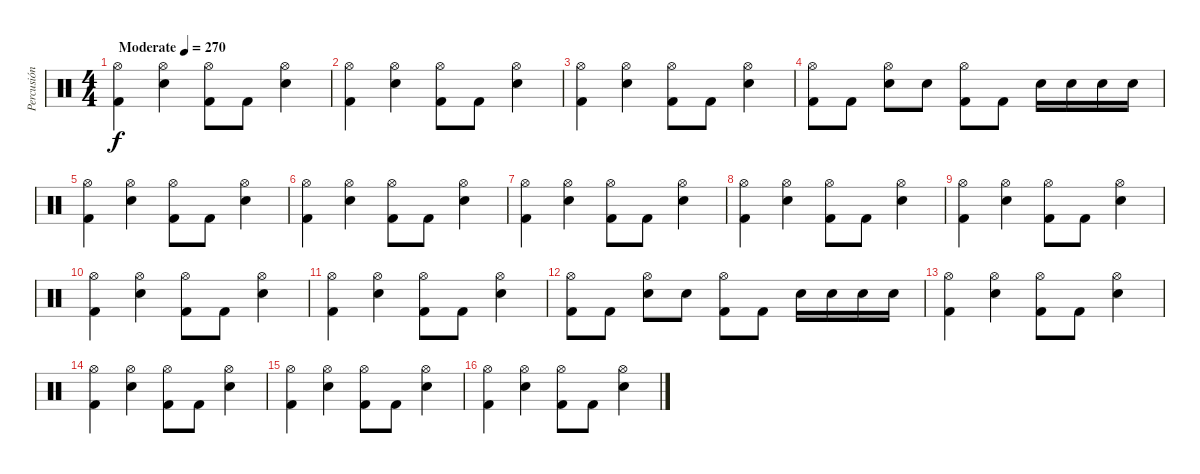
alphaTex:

\track ("Percusión" "Percusión") {instrument percussion}
\staff {score}
\articulation defaults
\ts (4 4)
\tempo (270 "Moderate")
\clef neutral
\ks c
("Hi-Hat (open)" "Kick (hit) 2").4{dy f} ("Hi-Hat (open)" "Electric Snare (hit)").4 ("Hi-Hat (open)" "Kick (hit) 2").8 "Kick (hit) 2".8 ("Hi-Hat (open)" "Electric Snare (hit)").4 |
("Hi-Hat (open)" "Kick (hit) 2").4 ("Hi-Hat (open)" "Electric Snare (hit)").4 ("Hi-Hat (open)" "Kick (hit) 2").8 "Kick (hit) 2".8 ("Hi-Hat (open)" "Electric Snare (hit)").4 |
("Hi-Hat (open)" "Kick (hit) 2").4 ("Hi-Hat (open)" "Electric Snare (hit)").4 ("Hi-Hat (open)" "Kick (hit) 2").8 "Kick (hit) 2".8 ("Hi-Hat (open)" "Electric Snare (hit)").4 |
("Hi-Hat (open)" "Kick (hit) 2").8 "Kick (hit) 2".8 ("Hi-Hat (open)" "Electric Snare (hit)").8 "Electric Snare (hit)".8 ("Hi-Hat (open)" "Kick (hit) 2").8 "Kick (hit) 2".8 "Electric Snare (hit)".16 "Electric Snare (hit)".16 "Electric Snare (hit)".16 "Electric Snare (hit)".16 |
("Hi-Hat (open)" "Kick (hit) 2").4 ("Hi-Hat (open)" "Electric Snare (hit)").4 ("Hi-Hat (open)" "Kick (hit) 2").8 "Kick (hit) 2".8 ("Hi-Hat (open)" "Electric Snare (hit)").4 |
("Hi-Hat (open)" "Kick (hit) 2").4 ("Hi-Hat (open)" "Electric Snare (hit)").4 ("Hi-Hat (open)" "Kick (hit) 2").8 "Kick (hit) 2".8 ("Hi-Hat (open)" "Electric Snare (hit)").4 |
("Hi-Hat (open)" "Kick (hit) 2").4 ("Hi-Hat (open)" "Electric Snare (hit)").4 ("Hi-Hat (open)" "Kick (hit) 2").8 "Kick (hit) 2".8 ("Hi-Hat (open)" "Electric Snare (hit)").4 |
("Hi-Hat (open)" "Kick (hit) 2").4 ("Hi-Hat (open)" "Electric Snare (hit)").4 ("Hi-Hat (open)" "Kick (hit) 2").8 "Kick (hit) 2".8 ("Hi-Hat (open)" "Electric Snare (hit)").4 |
("Hi-Hat (open)" "Kick (hit) 2").4 ("Hi-Hat (open)" "Electric Snare (hit)").4 ("Hi-Hat (open)" "Kick (hit) 2").8 "Kick (hit) 2".8 ("Hi-Hat (open)" "Electric Snare (hit)").4 |
("Hi-Hat (open)" "Kick (hit) 2").4 ("Hi-Hat (open)" "Electric Snare (hit)").4 ("Hi-Hat (open)" "Kick (hit) 2").8 "Kick (hit) 2".8 ("Hi-Hat (open)" "Electric Snare (hit)").4 |
("Hi-Hat (open)" "Kick (hit) 2").4 ("Hi-Hat (open)" "Electric Snare (hit)").4 ("Hi-Hat (open)" "Kick (hit) 2").8 "Kick (hit) 2".8 ("Hi-Hat (open)" "Electric Snare (hit)").4 |
("Hi-Hat (open)" "Kick (hit) 2").8 "Kick (hit) 2".8 ("Hi-Hat (open)" "Electric Snare (hit)").8 "Electric Snare (hit)".8 ("Hi-Hat (open)" "Kick (hit) 2").8 "Kick (hit) 2".8 "Electric Snare (hit)".16 "Electric Snare (hit)".16 "Electric Snare (hit)".16 "Electric Snare (hit)".16 |
("Hi-Hat (open)" "Kick (hit) 2").4 ("Hi-Hat (open)" "Electric Snare (hit)").4 ("Hi-Hat (open)" "Kick (hit) 2").8 "Kick (hit) 2".8 ("Hi-Hat (open)" "Electric Snare (hit)").4 |
("Hi-Hat (open)" "Kick (hit) 2").4 ("Hi-Hat (open)" "Electric Snare (hit)").4 ("Hi-Hat (open)" "Kick (hit) 2").8 "Kick (hit) 2".8 ("Hi-Hat (open)" "Electric Snare (hit)").4 |
("Hi-Hat (open)" "Kick (hit) 2").4 ("Hi-Hat (open)" "Electric Snare (hit)").4 ("Hi-Hat (open)" "Kick (hit) 2").8 "Kick (hit) 2".8 ("Hi-Hat (open)" "Electric Snare (hit)").4 |
("Hi-Hat (open)" "Kick (hit) 2").4 ("Hi-Hat (open)" "Electric Snare (hit)").4 ("Hi-Hat (open)" "Kick (hit) 2").8 "Kick (hit) 2".8 ("Hi-Hat (open)" "Electric Snare (hit)").4
